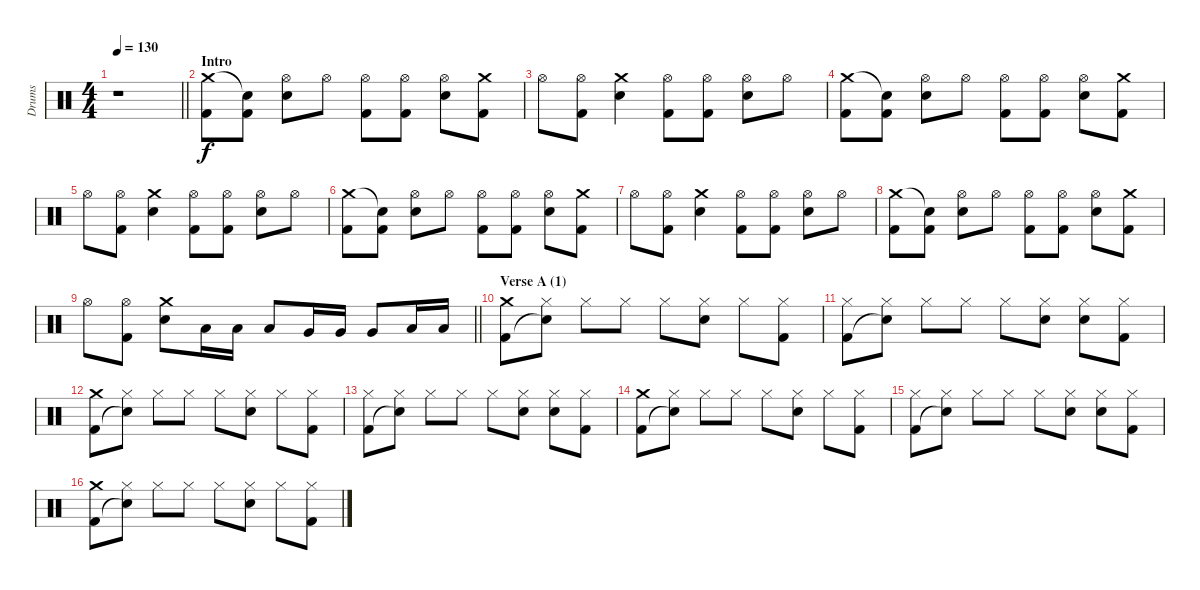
\track ("Drums" "Drums") {instrument percussion}
\staff {score}
\articulation defaults
\ts (4 4)
\tempo 130
\clef neutral
\barLineRight lightlight
\ks c
r.1{dy f} |
\section ("" "Intro")
("Crash medium (hit)" "Kick (hit) 2").8 ("Snare (hit)"{t} "Kick (hit) 2").8 ("Hi-Hat (open)" "Electric Snare (hit)").8 "Hi-Hat (open)".8 ("Hi-Hat (open)" "Kick (hit) 2").8 ("Hi-Hat (open)" "Kick (hit) 2").8 ("Hi-Hat (open)" "Electric Snare (hit)").8 ("Crash medium (hit)" "Kick (hit) 2").8 |
"Hi-Hat (open)".8 ("Hi-Hat (open)" "Kick (hit) 2").8 ("Crash medium (hit)" "Electric Snare (hit)").4 ("Hi-Hat (open)" "Kick (hit) 2").8 ("Hi-Hat (open)" "Kick (hit) 2").8 ("Hi-Hat (open)" "Electric Snare (hit)").8 "Hi-Hat (open)".8 |
("Crash medium (hit)" "Kick (hit) 2").8 ("Snare (hit)"{t} "Kick (hit) 2").8 ("Hi-Hat (open)" "Electric Snare (hit)").8 "Hi-Hat (open)".8 ("Hi-Hat (open)" "Kick (hit) 2").8 ("Hi-Hat (open)" "Kick (hit) 2").8 ("Hi-Hat (open)" "Electric Snare (hit)").8 ("Crash medium (hit)" "Kick (hit) 2").8 |
"Hi-Hat (open)".8 ("Hi-Hat (open)" "Kick (hit) 2").8 ("Crash medium (hit)" "Electric Snare (hit)").4 ("Hi-Hat (open)" "Kick (hit) 2").8 ("Hi-Hat (open)" "Kick (hit) 2").8 ("Hi-Hat (open)" "Electric Snare (hit)").8 "Hi-Hat (open)".8 |
("Crash medium (hit)" "Kick (hit) 2").8 ("Snare (hit)"{t} "Kick (hit) 2").8 ("Hi-Hat (open)" "Electric Snare (hit)").8 "Hi-Hat (open)".8 ("Hi-Hat (open)" "Kick (hit) 2").8 ("Hi-Hat (open)" "Kick (hit) 2").8 ("Hi-Hat (open)" "Electric Snare (hit)").8 ("Crash medium (hit)" "Kick (hit) 2").8 |
"Hi-Hat (open)".8 ("Hi-Hat (open)" "Kick (hit) 2").8 ("Crash medium (hit)" "Electric Snare (hit)").4 ("Hi-Hat (open)" "Kick (hit) 2").8 ("Hi-Hat (open)" "Kick (hit) 2").8 ("Hi-Hat (open)" "Electric Snare (hit)").8 "Hi-Hat (open)".8 |
("Crash medium (hit)" "Kick (hit) 2").8 ("Snare (hit)"{t} "Kick (hit) 2").8 ("Hi-Hat (open)" "Electric Snare (hit)").8 "Hi-Hat (open)".8 ("Hi-Hat (open)" "Kick (hit) 2").8 ("Hi-Hat (open)" "Kick (hit) 2").8 ("Hi-Hat (open)" "Electric Snare (hit)").8 ("Crash medium (hit)" "Kick (hit) 2").8 |
\barLineRight lightlight "Hi-Hat (open)".8
("Hi-Hat (open)" "Kick (hit) 2").8 ("Crash medium (hit)" "Electric Snare (hit)").8 "Low Tom (hit)".16 "Low Tom (hit)".16 "Low Tom (hit)".8 "Very Low Tom (hit)".16 "Very Low Tom (hit)".16 "Very Low Tom (hit)".8 "Low Floor Tom (hit)".16 "Low Floor Tom (hit)".16 |
\section ("" "Verse A (1)")
("Crash medium (hit)" "Kick (hit) 2").8 ("Hi-Hat (closed)" "Snare (hit)"{t}).8 "Hi-Hat (closed)".8 "Hi-Hat (closed)".8 "Hi-Hat (closed)".8 ("Hi-Hat (closed)" "Electric Snare (hit)").8 "Hi-Hat (closed)".8 ("Hi-Hat (closed)" "Kick (hit) 2").8 |
("Hi-Hat (closed)" "Kick (hit) 2").8 ("Hi-Hat (closed)" "Snare (hit)"{t}).8 "Hi-Hat (closed)".8 "Hi-Hat (closed)".8 "Hi-Hat (closed)".8 ("Hi-Hat (closed)" "Electric Snare (hit)").8 ("Hi-Hat (closed)" "Electric Snare (hit)").8 ("Hi-Hat (closed)" "Kick (hit) 2").8 |
("Crash medium (hit)" "Kick (hit) 2").8 ("Hi-Hat (closed)" "Snare (hit)"{t}).8 "Hi-Hat (closed)".8 "Hi-Hat (closed)".8 "Hi-Hat (closed)".8 ("Hi-Hat (closed)" "Electric Snare (hit)").8 "Hi-Hat (closed)".8 ("Hi-Hat (closed)" "Kick (hit) 2").8 |
("Hi-Hat (closed)" "Kick (hit) 2").8 ("Hi-Hat (closed)" "Snare (hit)"{t}).8 "Hi-Hat (closed)".8 "Hi-Hat (closed)".8 "Hi-Hat (closed)".8 ("Hi-Hat (closed)" "Electric Snare (hit)").8 ("Hi-Hat (closed)" "Electric Snare (hit)").8 ("Hi-Hat (closed)" "Kick (hit) 2").8 |
("Crash medium (hit)" "Kick (hit) 2").8 ("Hi-Hat (closed)" "Snare (hit)"{t}).8 "Hi-Hat (closed)".8 "Hi-Hat (closed)".8 "Hi-Hat (closed)".8 ("Hi-Hat (closed)" "Electric Snare (hit)").8 "Hi-Hat (closed)".8 ("Hi-Hat (closed)" "Kick (hit) 2").8 |
("Hi-Hat (closed)" "Kick (hit) 2").8 ("Hi-Hat (closed)" "Snare (hit)"{t}).8 "Hi-Hat (closed)".8 "Hi-Hat (closed)".8 "Hi-Hat (closed)".8 ("Hi-Hat (closed)" "Electric Snare (hit)").8 ("Hi-Hat (closed)" "Electric Snare (hit)").8 ("Hi-Hat (closed)" "Kick (hit) 2").8 |
("Crash medium (hit)" "Kick (hit) 2").8 ("Hi-Hat (closed)" "Snare (hit)"{t}).8 "Hi-Hat (closed)".8 "Hi-Hat (closed)".8 "Hi-Hat (closed)".8 ("Hi-Hat (closed)" "Electric Snare (hit)").8 "Hi-Hat (closed)".8 ("Hi-Hat (closed)" "Kick (hit) 2").8
